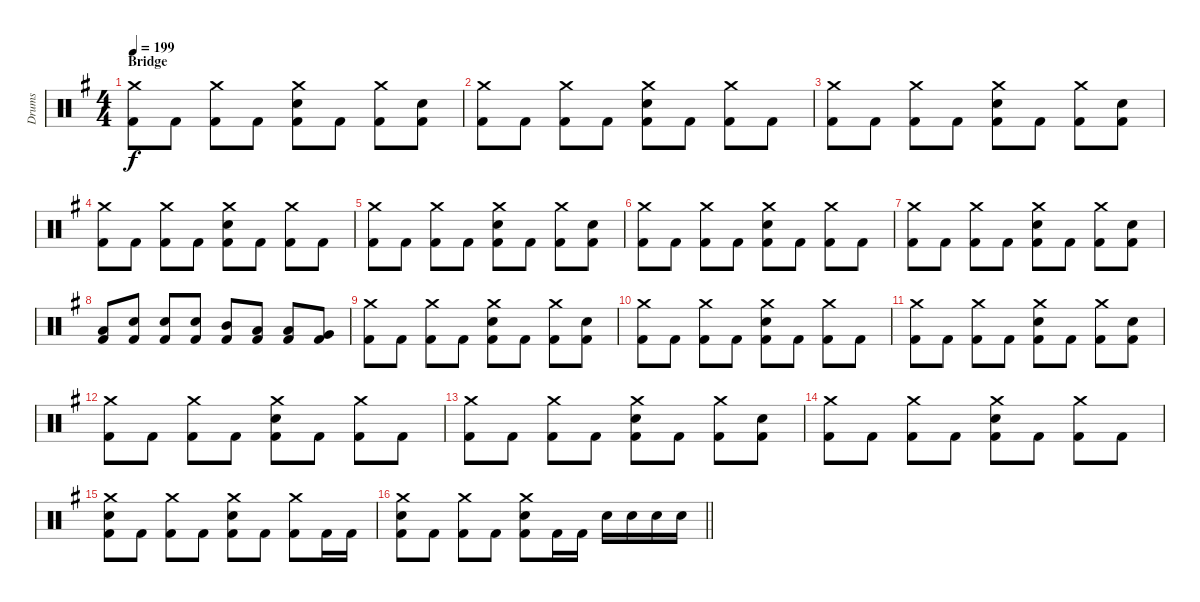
\track ("Drums" "Drums") {instrument percussion}
\staff {score}
\articulation defaults
\ts (4 4)
\section ("" "Bridge")
\tempo 199
\clef neutral
\ks eminor
("Crash medium (hit)" "Kick (hit) 2").8{dy f} "Kick (hit) 2".8 ("Crash medium (hit)" "Kick (hit) 2").8 "Kick (hit) 2".8 ("Crash medium (hit)" "Electric Snare (hit)" "Kick (hit) 2").8 "Kick (hit) 2".8 ("Crash medium (hit)" "Kick (hit) 2").8 ("Electric Snare (hit)" "Kick (hit) 2").8 |
("Crash medium (hit)" "Kick (hit) 2").8 "Kick (hit) 2".8 ("Crash medium (hit)" "Kick (hit) 2").8 "Kick (hit) 2".8 ("Crash medium (hit)" "Electric Snare (hit)" "Kick (hit) 2").8 "Kick (hit) 2".8 ("Crash medium (hit)" "Kick (hit) 2").8 "Kick (hit) 2".8 |
("Crash medium (hit)" "Kick (hit) 2").8 "Kick (hit) 2".8 ("Crash medium (hit)" "Kick (hit) 2").8 "Kick (hit) 2".8 ("Crash medium (hit)" "Electric Snare (hit)" "Kick (hit) 2").8 "Kick (hit) 2".8 ("Crash medium (hit)" "Kick (hit) 2").8 ("Electric Snare (hit)" "Kick (hit) 2").8 |
("Crash medium (hit)" "Kick (hit) 2").8 "Kick (hit) 2".8 ("Crash medium (hit)" "Kick (hit) 2").8 "Kick (hit) 2".8 ("Crash medium (hit)" "Electric Snare (hit)" "Kick (hit) 2").8 "Kick (hit) 2".8 ("Crash medium (hit)" "Kick (hit) 2").8 "Kick (hit) 2".8 |
("Crash medium (hit)" "Kick (hit) 2").8 "Kick (hit) 2".8 ("Crash medium (hit)" "Kick (hit) 2").8 "Kick (hit) 2".8 ("Crash medium (hit)" "Electric Snare (hit)" "Kick (hit) 2").8 "Kick (hit) 2".8 ("Crash medium (hit)" "Kick (hit) 2").8 ("Electric Snare (hit)" "Kick (hit) 2").8 |
("Crash medium (hit)" "Kick (hit) 2").8 "Kick (hit) 2".8 ("Crash medium (hit)" "Kick (hit) 2").8 "Kick (hit) 2".8 ("Crash medium (hit)" "Electric Snare (hit)" "Kick (hit) 2").8 "Kick (hit) 2".8 ("Crash medium (hit)" "Kick (hit) 2").8 "Kick (hit) 2".8 |
("Crash medium (hit)" "Kick (hit) 2").8 "Kick (hit) 2".8 ("Crash medium (hit)" "Kick (hit) 2").8 "Kick (hit) 2".8 ("Crash medium (hit)" "Electric Snare (hit)" "Kick (hit) 2").8 "Kick (hit) 2".8 ("Crash medium (hit)" "Kick (hit) 2").8 ("Electric Snare (hit)" "Kick (hit) 2").8 |
("Low Tom (hit)" "Kick (hit) 2").8 ("Electric Snare (hit)" "Kick (hit) 2").8 ("Electric Snare (hit)" "Kick (hit) 2").8 ("Electric Snare (hit)" "Kick (hit) 2").8 ("Mid Tom (hit)" "Kick (hit) 2").8 ("Low Tom (hit)" "Kick (hit) 2").8 ("Low Tom (hit)" "Kick (hit) 2").8 ("Very Low Tom (hit)" "Kick (hit) 2").8 |
("Crash medium (hit)" "Kick (hit) 2").8 "Kick (hit) 2".8 ("Crash medium (hit)" "Kick (hit) 2").8 "Kick (hit) 2".8 ("Crash medium (hit)" "Electric Snare (hit)" "Kick (hit) 2").8 "Kick (hit) 2".8 ("Crash medium (hit)" "Kick (hit) 2").8 ("Electric Snare (hit)" "Kick (hit) 2").8 |
("Crash medium (hit)" "Kick (hit) 2").8 "Kick (hit) 2".8 ("Crash medium (hit)" "Kick (hit) 2").8 "Kick (hit) 2".8 ("Crash medium (hit)" "Electric Snare (hit)" "Kick (hit) 2").8 "Kick (hit) 2".8 ("Crash medium (hit)" "Kick (hit) 2").8 "Kick (hit) 2".8 |
("Crash medium (hit)" "Kick (hit) 2").8 "Kick (hit) 2".8 ("Crash medium (hit)" "Kick (hit) 2").8 "Kick (hit) 2".8 ("Crash medium (hit)" "Electric Snare (hit)" "Kick (hit) 2").8 "Kick (hit) 2".8 ("Crash medium (hit)" "Kick (hit) 2").8 ("Electric Snare (hit)" "Kick (hit) 2").8 |
("Crash medium (hit)" "Kick (hit) 2").8 "Kick (hit) 2".8 ("Crash medium (hit)" "Kick (hit) 2").8 "Kick (hit) 2".8 ("Crash medium (hit)" "Electric Snare (hit)" "Kick (hit) 2").8 "Kick (hit) 2".8 ("Crash medium (hit)" "Kick (hit) 2").8 "Kick (hit) 2".8 |
("Crash medium (hit)" "Kick (hit) 2").8 "Kick (hit) 2".8 ("Crash medium (hit)" "Kick (hit) 2").8 "Kick (hit) 2".8 ("Crash medium (hit)" "Electric Snare (hit)" "Kick (hit) 2").8 "Kick (hit) 2".8 ("Crash medium (hit)" "Kick (hit) 2").8 ("Electric Snare (hit)" "Kick (hit) 2").8 |
("Crash medium (hit)" "Kick (hit) 2").8 "Kick (hit) 2".8 ("Crash medium (hit)" "Kick (hit) 2").8 "Kick (hit) 2".8 ("Crash medium (hit)" "Electric Snare (hit)" "Kick (hit) 2").8 "Kick (hit) 2".8 ("Crash medium (hit)" "Kick (hit) 2").8 "Kick (hit) 2".8 |
("Crash medium (hit)" "Electric Snare (hit)" "Kick (hit) 2").8 "Kick (hit) 2".8 ("Crash medium (hit)" "Kick (hit) 2").8 "Kick (hit) 2".8 ("Crash medium (hit)" "Electric Snare (hit)" "Kick (hit) 2").8 "Kick (hit) 2".8 ("Crash medium (hit)" "Kick (hit) 2").8 "Kick (hit) 2".16 "Kick (hit) 2".16 |
\barLineRight lightlight
("Crash medium (hit)" "Electric Snare (hit)" "Kick (hit) 2").8 "Kick (hit) 2".8 ("Crash medium (hit)" "Kick (hit) 2").8 "Kick (hit) 2".8 ("Crash medium (hit)" "Electric Snare (hit)" "Kick (hit) 2").8 "Kick (hit) 2".16 "Kick (hit) 2".16 "Electric Snare (hit)".16 "Electric Snare (hit)".16 "Electric Snare (hit)".16 "Electric Snare (hit)".16
